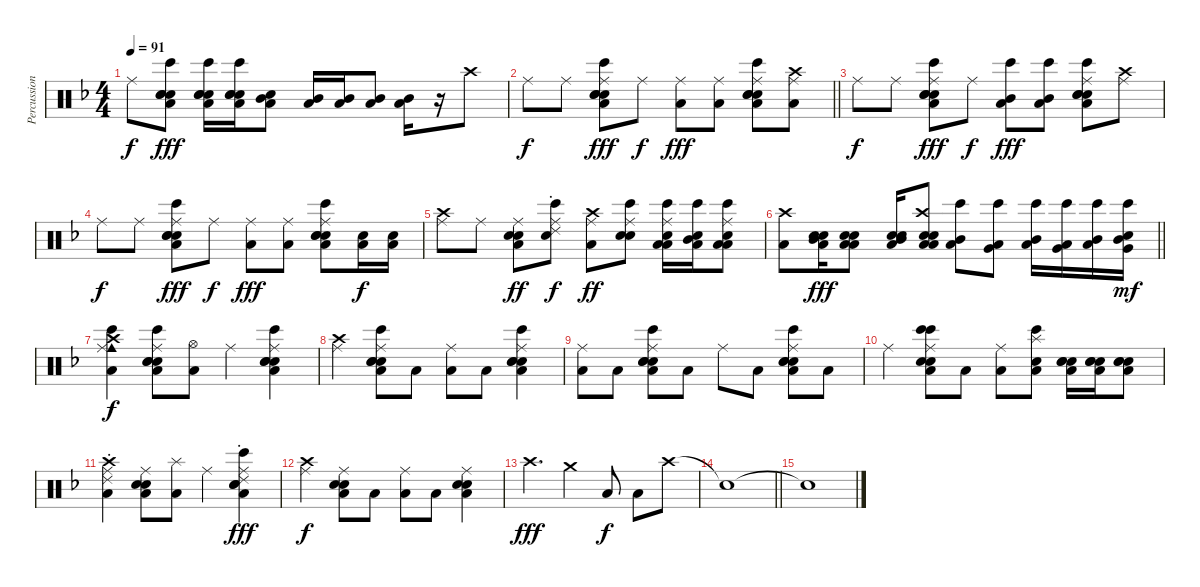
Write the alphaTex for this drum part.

\track ("Percussion" "Percussion") {instrument percussion}
\staff {score}
\articulation defaults
\ts (4 4)
\tempo 91
\clef neutral
\ks f "Ride (middle)".8{dy f}
("Bongo High (hit)" "Low Floor Tom (hit)" "Snare (hit) 2" "Hand Clap (hit)" "Electric Snare (hit)").8{dy fff} ("Electric Snare (hit)" "Low Floor Tom (hit)" "Snare (hit) 2" "Hand Clap (hit)" "Bongo High (hit)").16 ("Electric Snare (hit)" "Low Floor Tom (hit)" "Snare (hit) 2" "Hand Clap (hit)" "Bongo High (hit)").16 ("Low Floor Tom (hit)" "Mid Tom (hit)" "Snare (hit) 2").8 ("Low Floor Tom (hit)" "Mid Tom (hit)").16 ("Low Floor Tom (hit)" "Mid Tom (hit)").16 ("Low Floor Tom (hit)" "Mid Tom (hit)").8 ("Low Floor Tom (hit)" "Mid Tom (hit)").16 r.16 "Crash high (hit)".8 |
\barLineRight lightlight "Ride (middle)".8{dy f} "Ride (middle)".8
("Low Floor Tom (hit)" "Electric Snare (hit)" "Ride (middle)" "Snare (hit) 2" "Hand Clap (hit)" "Bongo High (hit)").8{dy fff} "Ride (middle)".8{dy f} ("Ride (middle)" "Low Floor Tom (hit)").8{dy fff} ("Ride (middle)" "Low Floor Tom (hit)").8 ("Bongo High (hit)" "Hand Clap (hit)" "Ride (middle)" "Low Floor Tom (hit)" "Snare (hit) 2" "Electric Snare (hit)").8 ("Low Floor Tom (hit)" "Ride (middle)" "Crash high (hit)").8 |
"Ride (middle)".8{dy f} "Ride (middle)".8 ("Low Floor Tom (hit)" "Electric Snare (hit)" "Ride (middle)" "Snare (hit) 2" "Hand Clap (hit)" "Bongo High (hit)").8{dy fff} "Ride (middle)".8{dy f} ("Low Floor Tom (hit)" "Mid Tom (hit)" "Bongo High (hit)").8{dy fff} ("Low Floor Tom (hit)" "Mid Tom (hit)" "Bongo High (hit)").8 ("Bongo High (hit)" "Hand Clap (hit)" "Ride (middle)" "Low Floor Tom (hit)" "Snare (hit) 2" "Electric Snare (hit)").8 ("Ride (middle)" "Crash high (hit)").8 |
"Ride (middle)".8{dy f} "Ride (middle)".8 ("Low Floor Tom (hit)" "Electric Snare (hit)" "Ride (middle)" "Snare (hit) 2" "Hand Clap (hit)" "Bongo High (hit)").8{dy fff} "Ride (middle)".8{dy f} ("Ride (middle)" "Low Floor Tom (hit)").8{dy fff} ("Ride (middle)" "Low Floor Tom (hit)").8 ("Bongo High (hit)" "Hand Clap (hit)" "Ride (middle)" "Low Floor Tom (hit)" "Snare (hit) 2" "Electric Snare (hit)").8 ("Low Floor Tom (hit)" "Snare (hit) 2").16{dy f} ("Low Floor Tom (hit)" "Snare (hit) 2").16 |
("Crash high (hit)" "Ride (middle)").8 "Ride (middle)".8 ("Low Floor Tom (hit)" "Ride (middle)" "Snare (hit) 2" "Electric Snare (hit)").8{dy ff} ("Ride (choke) 2" "Ride (middle)" "Bongo High (hit)" "Hand Clap (hit)").8{dy f} ("Low Floor Tom (hit)" "Ride (middle)" "Crash high (hit)").8{dy ff} ("Ride (middle)" "Snare (hit) 2" "Bongo High (hit)" "Hand Clap (hit)").8 ("Low Floor Tom (hit)" "Ride (middle)" "Low Tom (hit)" "Bongo High (hit)" "Hand Clap (hit)").16 ("Low Floor Tom (hit)" "Mid Tom (hit)" "Bongo High (hit)" "Hand Clap (hit)").16 ("Low Floor Tom (hit)" "Ride (middle)" "Low Tom (hit)" "Bongo High (hit)" "Hand Clap (hit)").8 |
\barLineRight lightlight
("Crash high (hit)" "Low Floor Tom (hit)").8 ("Hand Clap (hit)" "Snare (hit) 2" "Mid Tom (hit)" "Low Floor Tom (hit)").16{dy fff} ("Hand Clap (hit)" "Snare (hit) 2" "Low Tom (hit)" "Low Floor Tom (hit)").8 ("Snare (hit) 2" "Mid Tom (hit)" "Low Floor Tom (hit)" "Hand Clap (hit)").16 ("Snare (hit) 2" "Low Tom (hit)" "Crash high (hit)" "Low Floor Tom (hit)" "Hand Clap (hit)").8 ("Bongo High (hit)" "Mid Tom (hit)" "Low Floor Tom (hit)").8 ("Bongo High (hit)" "Low Tom (hit)" "Very Low Tom (hit)").8 ("Bongo High (hit)" "Mid Tom (hit)" "Low Floor Tom (hit)").16 ("Bongo High (hit)" "Low Tom (hit)" "Very Low Tom (hit)").16 ("Bongo High (hit)" "Mid Tom (hit)" "Low Floor Tom (hit)").16 ("Bongo High (hit)" "Mid Tom (hit)" "Very Low Tom (hit)" "Hand Clap (hit)").16{dy mf} |
("Bongo High (hit)" "Low Floor Tom (hit)" "Cowbell medium (hit)" "Ride (middle)" "Crash high (hit)").4{dy f} ("Hand Clap (hit)" "Low Floor Tom (hit)" "Snare (hit) 2" "Electric Snare (hit)" "Ride (middle)" "Bongo High (hit)").8 ("Low Floor Tom (hit)" "Hi-Hat (open)").8 "Ride (middle)".4 ("Hand Clap (hit)" "Electric Snare (hit)" "Snare (hit) 2" "Low Floor Tom (hit)" "Ride (middle)" "Bongo High (hit)").4 |
("Crash high (hit)" "Ride (middle)").4 ("Hand Clap (hit)" "Low Floor Tom (hit)" "Snare (hit) 2" "Electric Snare (hit)" "Ride (middle)" "Bongo High (hit)").8 "Low Floor Tom (hit)".8 ("Low Floor Tom (hit)" "Ride (middle)").8 "Low Floor Tom (hit)".8 ("Bongo High (hit)" "Electric Snare (hit)" "Low Floor Tom (hit)" "Ride (middle)" "Snare (hit) 2" "Hand Clap (hit)").4 |
("Low Floor Tom (hit)" "Ride (middle)").8 "Low Floor Tom (hit)".8 ("Hand Clap (hit)" "Electric Snare (hit)" "Low Floor Tom (hit)" "Snare (hit) 2" "Ride (middle)" "Bongo High (hit)").8 "Low Floor Tom (hit)".8 "Ride (middle)".8 "Low Floor Tom (hit)".8 ("Hand Clap (hit)" "Electric Snare (hit)" "Low Floor Tom (hit)" "Snare (hit) 2" "Ride (middle)" "Bongo High (hit)").8 "Low Floor Tom (hit)".8 |
"Ride (middle)".4 ("Bongo High (hit)" "Electric Snare (hit)" "Low Floor Tom (hit)" "Snare (hit) 2" "Ride (middle)" "Bongo High (hit)").8 "Low Floor Tom (hit)".8 ("Low Floor Tom (hit)" "Ride (middle)").8 ("Bongo High (hit)" "Low Floor Tom (hit)" "Snare (hit) 2" "Splash (hit)").8 ("Low Floor Tom (hit)" "Snare (hit) 2" "Electric Snare (hit)" "Hand Clap (hit)").16 ("Low Floor Tom (hit)" "Snare (hit) 2" "Electric Snare (hit)" "Hand Clap (hit)").16 ("Low Floor Tom (hit)" "Snare (hit) 2" "Electric Snare (hit)" "Hand Clap (hit)").8 |
("Low Floor Tom (hit)" "Crash high (hit)" "Ride (middle)" "Ride (choke) 2").4 ("Low Floor Tom (hit)" "Snare (hit) 2" "Electric Snare (hit)" "Ride (middle)").8 ("Low Floor Tom (hit)" "Splash (hit)").8 "Ride (middle)".4 ("Ride (choke) 2" "Electric Snare (hit)" "Snare (hit) 2" "Low Floor Tom (hit)" "Ride (middle)" "Bongo High (hit)").4{dy fff} |
("Crash high (hit)" "Ride (middle)").4{dy f} ("Low Floor Tom (hit)" "Snare (hit) 2" "Electric Snare (hit)" "Ride (middle)").8 "Low Floor Tom (hit)".8 ("Low Floor Tom (hit)" "Ride (middle)").8 "Low Floor Tom (hit)".8 ("Electric Snare (hit)" "Low Floor Tom (hit)" "Ride (middle)" "Snare (hit) 2").4 |
"Crash high (hit)".4{d dy fff} "Crash medium (hit)".4 "Low Floor Tom (hit)".8{dy f} "Low Floor Tom (hit)".8 "Crash high (hit)".8 |
\barLineRight lightlight "Snare (hit)"{t}.1
|
"Snare (hit)"{t}.1
